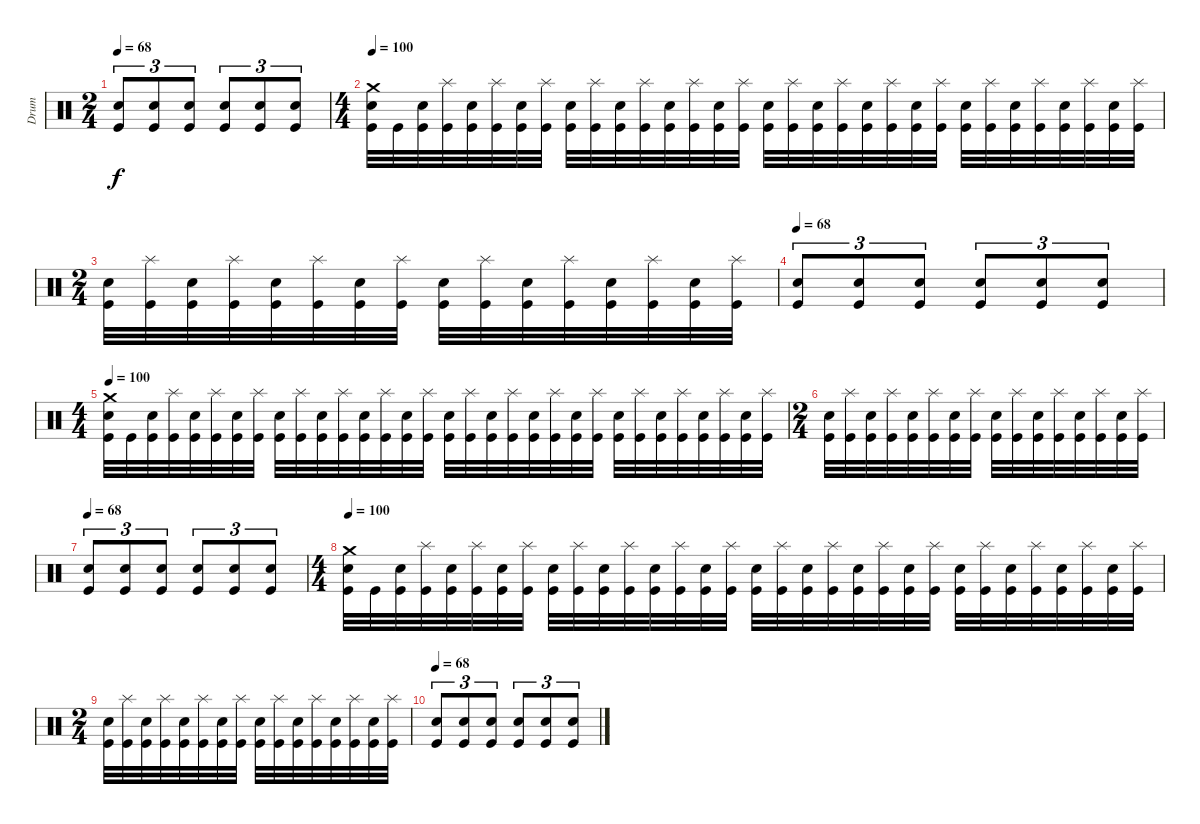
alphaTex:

\track ("Drum" "Drum") {instrument percussion}
\staff
\articulation defaults
\ts (2 4)
\tempo 68
\clef neutral
\ks c
("Electric Snare (hit)" "Kick (hit)").8{tu (3 2) dy f} ("Electric Snare (hit)" "Kick (hit)").8{tu (3 2)} ("Electric Snare (hit)" "Kick (hit)").8{tu (3 2)} ("Electric Snare (hit)" "Kick (hit)").8{tu (3 2)} ("Electric Snare (hit)" "Kick (hit)").8{tu (3 2)} ("Electric Snare (hit)" "Kick (hit)").8{tu (3 2)} |
\ts (4 4)
\tempo 100
("Crash medium (hit)" "Electric Snare (hit)" "Kick (hit)").32 "Kick (hit)".32 ("Electric Snare (hit)" "Kick (hit)").32 ("Splash (hit)" "Kick (hit)").32 ("Electric Snare (hit)" "Kick (hit)").32 ("Splash (hit)" "Kick (hit)").32 ("Electric Snare (hit)" "Kick (hit)").32 ("Splash (hit)" "Kick (hit)").32 ("Electric Snare (hit)" "Kick (hit)").32 ("Splash (hit)" "Kick (hit)").32 ("Electric Snare (hit)" "Kick (hit)").32 ("Splash (hit)" "Kick (hit)").32 ("Electric Snare (hit)" "Kick (hit)").32 ("Splash (hit)" "Kick (hit)").32 ("Electric Snare (hit)" "Kick (hit)").32 ("Splash (hit)" "Kick (hit)").32 ("Electric Snare (hit)" "Kick (hit)").32 ("Splash (hit)" "Kick (hit)").32 ("Electric Snare (hit)" "Kick (hit)").32 ("Splash (hit)" "Kick (hit)").32 ("Electric Snare (hit)" "Kick (hit)").32 ("Splash (hit)" "Kick (hit)").32 ("Electric Snare (hit)" "Kick (hit)").32 ("Splash (hit)" "Kick (hit)").32 ("Electric Snare (hit)" "Kick (hit)").32 ("Splash (hit)" "Kick (hit)").32 ("Electric Snare (hit)" "Kick (hit)").32 ("Splash (hit)" "Kick (hit)").32 ("Electric Snare (hit)" "Kick (hit)").32 ("Splash (hit)" "Kick (hit)").32 ("Electric Snare (hit)" "Kick (hit)").32 ("Splash (hit)" "Kick (hit)").32 |
\ts (2 4)
("Electric Snare (hit)" "Kick (hit)").32 ("Splash (hit)" "Kick (hit)").32 ("Electric Snare (hit)" "Kick (hit)").32 ("Splash (hit)" "Kick (hit)").32 ("Electric Snare (hit)" "Kick (hit)").32 ("Splash (hit)" "Kick (hit)").32 ("Electric Snare (hit)" "Kick (hit)").32 ("Splash (hit)" "Kick (hit)").32 ("Electric Snare (hit)" "Kick (hit)").32 ("Splash (hit)" "Kick (hit)").32 ("Electric Snare (hit)" "Kick (hit)").32 ("Splash (hit)" "Kick (hit)").32 ("Electric Snare (hit)" "Kick (hit)").32 ("Splash (hit)" "Kick (hit)").32 ("Electric Snare (hit)" "Kick (hit)").32 ("Splash (hit)" "Kick (hit)").32 |
\tempo 68
("Electric Snare (hit)" "Kick (hit)").8{tu (3 2)} ("Electric Snare (hit)" "Kick (hit)").8{tu (3 2)} ("Electric Snare (hit)" "Kick (hit)").8{tu (3 2)} ("Electric Snare (hit)" "Kick (hit)").8{tu (3 2)} ("Electric Snare (hit)" "Kick (hit)").8{tu (3 2)} ("Electric Snare (hit)" "Kick (hit)").8{tu (3 2)} |
\ts (4 4)
\tempo 100
("Crash medium (hit)" "Electric Snare (hit)" "Kick (hit)").32 "Kick (hit)".32 ("Electric Snare (hit)" "Kick (hit)").32 ("Splash (hit)" "Kick (hit)").32 ("Electric Snare (hit)" "Kick (hit)").32 ("Splash (hit)" "Kick (hit)").32 ("Electric Snare (hit)" "Kick (hit)").32 ("Splash (hit)" "Kick (hit)").32 ("Electric Snare (hit)" "Kick (hit)").32 ("Splash (hit)" "Kick (hit)").32 ("Electric Snare (hit)" "Kick (hit)").32 ("Splash (hit)" "Kick (hit)").32 ("Electric Snare (hit)" "Kick (hit)").32 ("Splash (hit)" "Kick (hit)").32 ("Electric Snare (hit)" "Kick (hit)").32 ("Splash (hit)" "Kick (hit)").32 ("Electric Snare (hit)" "Kick (hit)").32 ("Splash (hit)" "Kick (hit)").32 ("Electric Snare (hit)" "Kick (hit)").32 ("Splash (hit)" "Kick (hit)").32 ("Electric Snare (hit)" "Kick (hit)").32 ("Splash (hit)" "Kick (hit)").32 ("Electric Snare (hit)" "Kick (hit)").32 ("Splash (hit)" "Kick (hit)").32 ("Electric Snare (hit)" "Kick (hit)").32 ("Splash (hit)" "Kick (hit)").32 ("Electric Snare (hit)" "Kick (hit)").32 ("Splash (hit)" "Kick (hit)").32 ("Electric Snare (hit)" "Kick (hit)").32 ("Splash (hit)" "Kick (hit)").32 ("Electric Snare (hit)" "Kick (hit)").32 ("Splash (hit)" "Kick (hit)").32 |
\ts (2 4)
("Electric Snare (hit)" "Kick (hit)").32 ("Splash (hit)" "Kick (hit)").32 ("Electric Snare (hit)" "Kick (hit)").32 ("Splash (hit)" "Kick (hit)").32 ("Electric Snare (hit)" "Kick (hit)").32 ("Splash (hit)" "Kick (hit)").32 ("Electric Snare (hit)" "Kick (hit)").32 ("Splash (hit)" "Kick (hit)").32 ("Electric Snare (hit)" "Kick (hit)").32 ("Splash (hit)" "Kick (hit)").32 ("Electric Snare (hit)" "Kick (hit)").32 ("Splash (hit)" "Kick (hit)").32 ("Electric Snare (hit)" "Kick (hit)").32 ("Splash (hit)" "Kick (hit)").32 ("Electric Snare (hit)" "Kick (hit)").32 ("Splash (hit)" "Kick (hit)").32 |
\tempo 68
("Electric Snare (hit)" "Kick (hit)").8{tu (3 2)} ("Electric Snare (hit)" "Kick (hit)").8{tu (3 2)} ("Electric Snare (hit)" "Kick (hit)").8{tu (3 2)} ("Electric Snare (hit)" "Kick (hit)").8{tu (3 2)} ("Electric Snare (hit)" "Kick (hit)").8{tu (3 2)} ("Electric Snare (hit)" "Kick (hit)").8{tu (3 2)} |
\ts (4 4)
\tempo 100
("Crash medium (hit)" "Electric Snare (hit)" "Kick (hit)").32 "Kick (hit)".32 ("Electric Snare (hit)" "Kick (hit)").32 ("Splash (hit)" "Kick (hit)").32 ("Electric Snare (hit)" "Kick (hit)").32 ("Splash (hit)" "Kick (hit)").32 ("Electric Snare (hit)" "Kick (hit)").32 ("Splash (hit)" "Kick (hit)").32 ("Electric Snare (hit)" "Kick (hit)").32 ("Splash (hit)" "Kick (hit)").32 ("Electric Snare (hit)" "Kick (hit)").32 ("Splash (hit)" "Kick (hit)").32 ("Electric Snare (hit)" "Kick (hit)").32 ("Splash (hit)" "Kick (hit)").32 ("Electric Snare (hit)" "Kick (hit)").32 ("Splash (hit)" "Kick (hit)").32 ("Electric Snare (hit)" "Kick (hit)").32 ("Splash (hit)" "Kick (hit)").32 ("Electric Snare (hit)" "Kick (hit)").32 ("Splash (hit)" "Kick (hit)").32 ("Electric Snare (hit)" "Kick (hit)").32 ("Splash (hit)" "Kick (hit)").32 ("Electric Snare (hit)" "Kick (hit)").32 ("Splash (hit)" "Kick (hit)").32 ("Electric Snare (hit)" "Kick (hit)").32 ("Splash (hit)" "Kick (hit)").32 ("Electric Snare (hit)" "Kick (hit)").32 ("Splash (hit)" "Kick (hit)").32 ("Electric Snare (hit)" "Kick (hit)").32 ("Splash (hit)" "Kick (hit)").32 ("Electric Snare (hit)" "Kick (hit)").32 ("Splash (hit)" "Kick (hit)").32 |
\ts (2 4)
("Electric Snare (hit)" "Kick (hit)").32 ("Splash (hit)" "Kick (hit)").32 ("Electric Snare (hit)" "Kick (hit)").32 ("Splash (hit)" "Kick (hit)").32 ("Electric Snare (hit)" "Kick (hit)").32 ("Splash (hit)" "Kick (hit)").32 ("Electric Snare (hit)" "Kick (hit)").32 ("Splash (hit)" "Kick (hit)").32 ("Electric Snare (hit)" "Kick (hit)").32 ("Splash (hit)" "Kick (hit)").32 ("Electric Snare (hit)" "Kick (hit)").32 ("Splash (hit)" "Kick (hit)").32 ("Electric Snare (hit)" "Kick (hit)").32 ("Splash (hit)" "Kick (hit)").32 ("Electric Snare (hit)" "Kick (hit)").32 ("Splash (hit)" "Kick (hit)").32 |
\tempo 68
("Electric Snare (hit)" "Kick (hit)").8{tu (3 2)} ("Electric Snare (hit)" "Kick (hit)").8{tu (3 2)} ("Electric Snare (hit)" "Kick (hit)").8{tu (3 2)} ("Electric Snare (hit)" "Kick (hit)").8{tu (3 2)} ("Electric Snare (hit)" "Kick (hit)").8{tu (3 2)} ("Electric Snare (hit)" "Kick (hit)").8{tu (3 2)}
